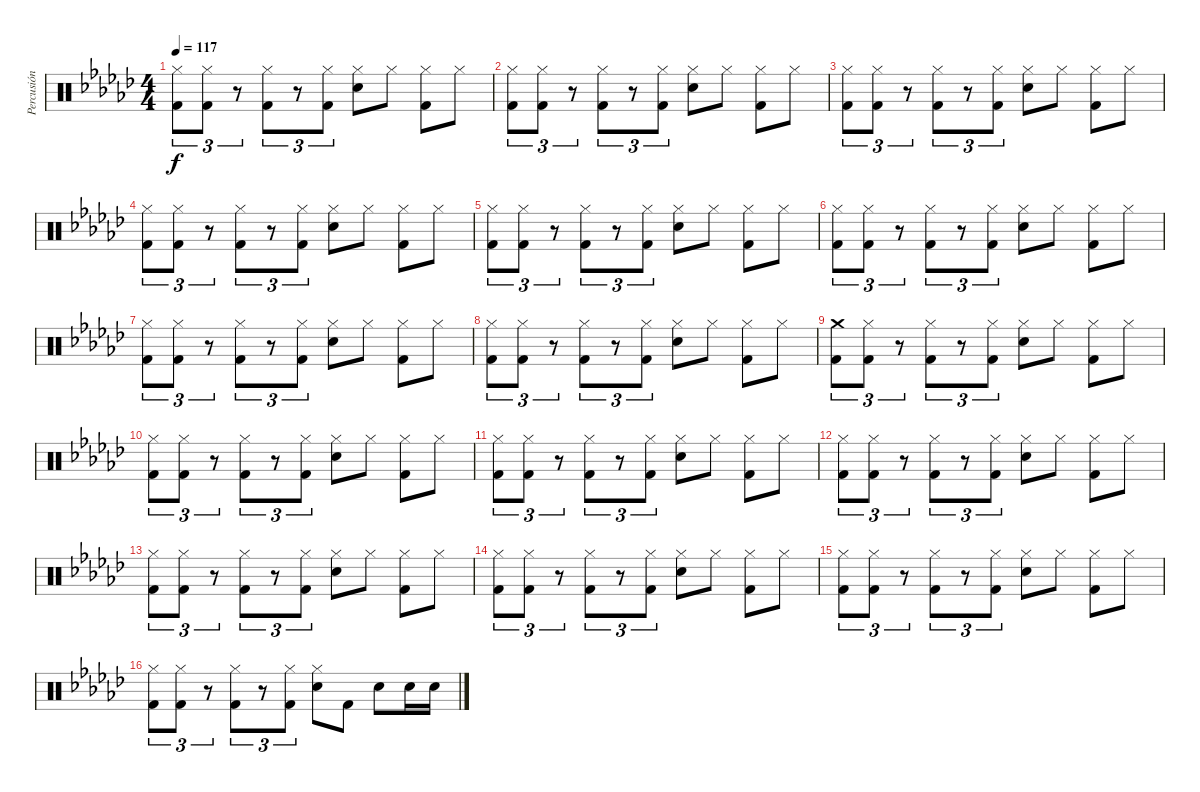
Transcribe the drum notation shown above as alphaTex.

\track ("Percusión" "Percusión") {instrument percussion}
\staff {score}
\articulation defaults
\ts (4 4)
\tempo 117
\clef neutral
\ks ebminor
("Kick (hit) 2" "Hi-Hat (closed)").8{tu (3 2) dy f} ("Kick (hit) 2" "Hi-Hat (closed)").8{tu (3 2)} r.8{tu (3 2)} ("Kick (hit) 2" "Hi-Hat (closed)").8{tu (3 2)} r.8{tu (3 2)} ("Kick (hit) 2" "Hi-Hat (closed)").8{tu (3 2)} ("Electric Snare (hit)" "Hi-Hat (closed)").8 "Hi-Hat (closed)".8 ("Kick (hit) 2" "Hi-Hat (closed)").8 "Hi-Hat (closed)".8 |
("Kick (hit) 2" "Hi-Hat (closed)").8{tu (3 2)} ("Kick (hit) 2" "Hi-Hat (closed)").8{tu (3 2)} r.8{tu (3 2)} ("Kick (hit) 2" "Hi-Hat (closed)").8{tu (3 2)} r.8{tu (3 2)} ("Kick (hit) 2" "Hi-Hat (closed)").8{tu (3 2)} ("Electric Snare (hit)" "Hi-Hat (closed)").8 "Hi-Hat (closed)".8 ("Kick (hit) 2" "Hi-Hat (closed)").8 "Hi-Hat (closed)".8 |
("Kick (hit) 2" "Hi-Hat (closed)").8{tu (3 2)} ("Kick (hit) 2" "Hi-Hat (closed)").8{tu (3 2)} r.8{tu (3 2)} ("Kick (hit) 2" "Hi-Hat (closed)").8{tu (3 2)} r.8{tu (3 2)} ("Kick (hit) 2" "Hi-Hat (closed)").8{tu (3 2)} ("Electric Snare (hit)" "Hi-Hat (closed)").8 "Hi-Hat (closed)".8 ("Kick (hit) 2" "Hi-Hat (closed)").8 "Hi-Hat (closed)".8 |
("Kick (hit) 2" "Hi-Hat (closed)").8{tu (3 2)} ("Kick (hit) 2" "Hi-Hat (closed)").8{tu (3 2)} r.8{tu (3 2)} ("Kick (hit) 2" "Hi-Hat (closed)").8{tu (3 2)} r.8{tu (3 2)} ("Kick (hit) 2" "Hi-Hat (closed)").8{tu (3 2)} ("Electric Snare (hit)" "Hi-Hat (closed)").8 "Hi-Hat (closed)".8 ("Kick (hit) 2" "Hi-Hat (closed)").8 "Hi-Hat (closed)".8 |
("Kick (hit) 2" "Hi-Hat (closed)").8{tu (3 2)} ("Kick (hit) 2" "Hi-Hat (closed)").8{tu (3 2)} r.8{tu (3 2)} ("Kick (hit) 2" "Hi-Hat (closed)").8{tu (3 2)} r.8{tu (3 2)} ("Kick (hit) 2" "Hi-Hat (closed)").8{tu (3 2)} ("Electric Snare (hit)" "Hi-Hat (closed)").8 "Hi-Hat (closed)".8 ("Kick (hit) 2" "Hi-Hat (closed)").8 "Hi-Hat (closed)".8 |
("Kick (hit) 2" "Hi-Hat (closed)").8{tu (3 2)} ("Kick (hit) 2" "Hi-Hat (closed)").8{tu (3 2)} r.8{tu (3 2)} ("Kick (hit) 2" "Hi-Hat (closed)").8{tu (3 2)} r.8{tu (3 2)} ("Kick (hit) 2" "Hi-Hat (closed)").8{tu (3 2)} ("Electric Snare (hit)" "Hi-Hat (closed)").8 "Hi-Hat (closed)".8 ("Kick (hit) 2" "Hi-Hat (closed)").8 "Hi-Hat (closed)".8 |
("Kick (hit) 2" "Hi-Hat (closed)").8{tu (3 2)} ("Kick (hit) 2" "Hi-Hat (closed)").8{tu (3 2)} r.8{tu (3 2)} ("Kick (hit) 2" "Hi-Hat (closed)").8{tu (3 2)} r.8{tu (3 2)} ("Kick (hit) 2" "Hi-Hat (closed)").8{tu (3 2)} ("Electric Snare (hit)" "Hi-Hat (closed)").8 "Hi-Hat (closed)".8 ("Kick (hit) 2" "Hi-Hat (closed)").8 "Hi-Hat (closed)".8 |
("Kick (hit) 2" "Hi-Hat (closed)").8{tu (3 2)} ("Kick (hit) 2" "Hi-Hat (closed)").8{tu (3 2)} r.8{tu (3 2)} ("Kick (hit) 2" "Hi-Hat (closed)").8{tu (3 2)} r.8{tu (3 2)} ("Kick (hit) 2" "Hi-Hat (closed)").8{tu (3 2)} ("Electric Snare (hit)" "Hi-Hat (closed)").8 "Hi-Hat (closed)".8 ("Kick (hit) 2" "Hi-Hat (closed)").8 "Hi-Hat (closed)".8 |
("Kick (hit) 2" "Crash medium (hit)").8{tu (3 2)} ("Kick (hit) 2" "Hi-Hat (closed)").8{tu (3 2)} r.8{tu (3 2)} ("Kick (hit) 2" "Hi-Hat (closed)").8{tu (3 2)} r.8{tu (3 2)} ("Kick (hit) 2" "Hi-Hat (closed)").8{tu (3 2)} ("Electric Snare (hit)" "Hi-Hat (closed)").8 "Hi-Hat (closed)".8 ("Kick (hit) 2" "Hi-Hat (closed)").8 "Hi-Hat (closed)".8 |
("Kick (hit) 2" "Hi-Hat (closed)").8{tu (3 2)} ("Kick (hit) 2" "Hi-Hat (closed)").8{tu (3 2)} r.8{tu (3 2)} ("Kick (hit) 2" "Hi-Hat (closed)").8{tu (3 2)} r.8{tu (3 2)} ("Kick (hit) 2" "Hi-Hat (closed)").8{tu (3 2)} ("Electric Snare (hit)" "Hi-Hat (closed)").8 "Hi-Hat (closed)".8 ("Kick (hit) 2" "Hi-Hat (closed)").8 "Hi-Hat (closed)".8 |
("Kick (hit) 2" "Hi-Hat (closed)").8{tu (3 2)} ("Kick (hit) 2" "Hi-Hat (closed)").8{tu (3 2)} r.8{tu (3 2)} ("Kick (hit) 2" "Hi-Hat (closed)").8{tu (3 2)} r.8{tu (3 2)} ("Kick (hit) 2" "Hi-Hat (closed)").8{tu (3 2)} ("Electric Snare (hit)" "Hi-Hat (closed)").8 "Hi-Hat (closed)".8 ("Kick (hit) 2" "Hi-Hat (closed)").8 "Hi-Hat (closed)".8 |
("Kick (hit) 2" "Hi-Hat (closed)").8{tu (3 2)} ("Kick (hit) 2" "Hi-Hat (closed)").8{tu (3 2)} r.8{tu (3 2)} ("Kick (hit) 2" "Hi-Hat (closed)").8{tu (3 2)} r.8{tu (3 2)} ("Kick (hit) 2" "Hi-Hat (closed)").8{tu (3 2)} ("Electric Snare (hit)" "Hi-Hat (closed)").8 "Hi-Hat (closed)".8 ("Kick (hit) 2" "Hi-Hat (closed)").8 "Hi-Hat (closed)".8 |
("Kick (hit) 2" "Hi-Hat (closed)").8{tu (3 2)} ("Kick (hit) 2" "Hi-Hat (closed)").8{tu (3 2)} r.8{tu (3 2)} ("Kick (hit) 2" "Hi-Hat (closed)").8{tu (3 2)} r.8{tu (3 2)} ("Kick (hit) 2" "Hi-Hat (closed)").8{tu (3 2)} ("Electric Snare (hit)" "Hi-Hat (closed)").8 "Hi-Hat (closed)".8 ("Kick (hit) 2" "Hi-Hat (closed)").8 "Hi-Hat (closed)".8 |
("Kick (hit) 2" "Hi-Hat (closed)").8{tu (3 2)} ("Kick (hit) 2" "Hi-Hat (closed)").8{tu (3 2)} r.8{tu (3 2)} ("Kick (hit) 2" "Hi-Hat (closed)").8{tu (3 2)} r.8{tu (3 2)} ("Kick (hit) 2" "Hi-Hat (closed)").8{tu (3 2)} ("Electric Snare (hit)" "Hi-Hat (closed)").8 "Hi-Hat (closed)".8 ("Kick (hit) 2" "Hi-Hat (closed)").8 "Hi-Hat (closed)".8 |
("Kick (hit) 2" "Hi-Hat (closed)").8{tu (3 2)} ("Kick (hit) 2" "Hi-Hat (closed)").8{tu (3 2)} r.8{tu (3 2)} ("Kick (hit) 2" "Hi-Hat (closed)").8{tu (3 2)} r.8{tu (3 2)} ("Kick (hit) 2" "Hi-Hat (closed)").8{tu (3 2)} ("Electric Snare (hit)" "Hi-Hat (closed)").8 "Hi-Hat (closed)".8 ("Kick (hit) 2" "Hi-Hat (closed)").8 "Hi-Hat (closed)".8 |
("Kick (hit) 2" "Hi-Hat (closed)").8{tu (3 2)} ("Kick (hit) 2" "Hi-Hat (closed)").8{tu (3 2)} r.8{tu (3 2)} ("Kick (hit) 2" "Hi-Hat (closed)").8{tu (3 2)} r.8{tu (3 2)} ("Kick (hit) 2" "Hi-Hat (closed)").8{tu (3 2)} ("Electric Snare (hit)" "Hi-Hat (closed)").8 "Kick (hit) 2".8 "Electric Snare (hit)".8 "Electric Snare (hit)".16 "Electric Snare (hit)".16
